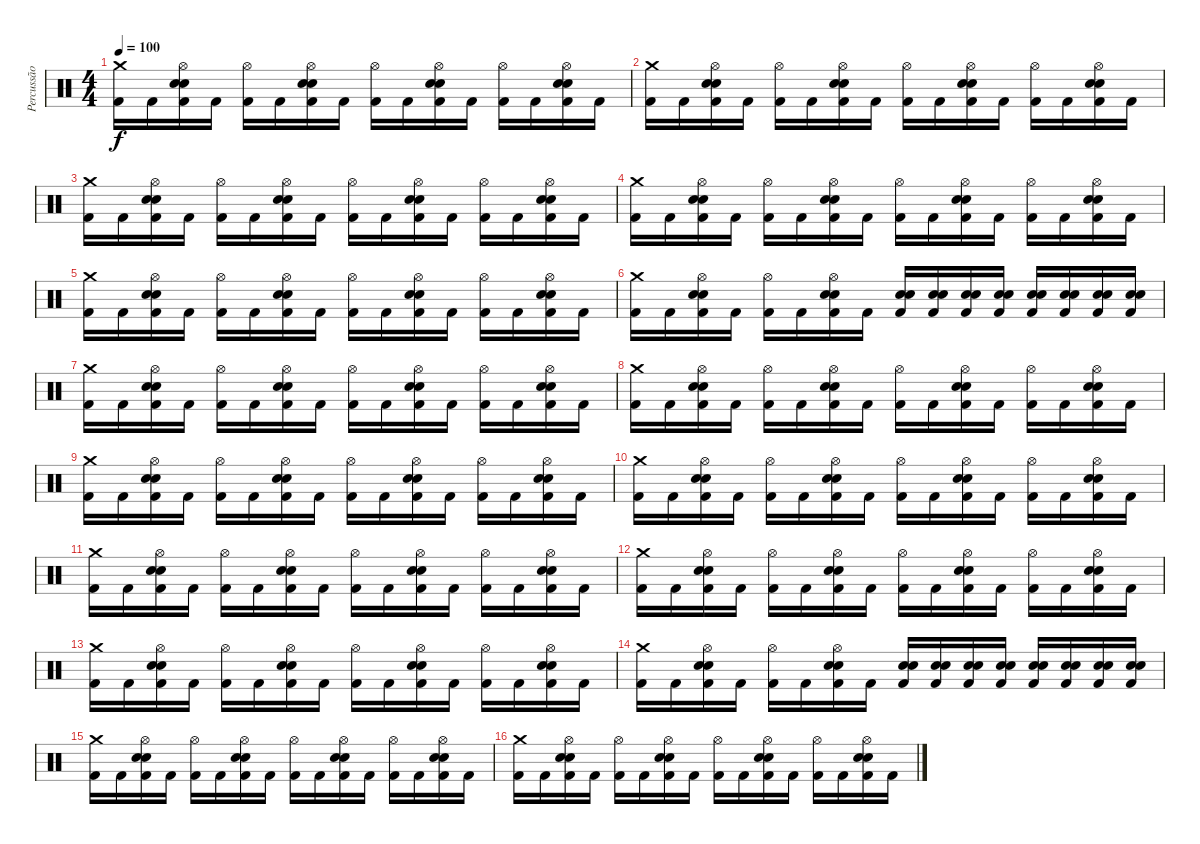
\track ("Percussão" "Percussão") {instrument percussion}
\staff {score}
\articulation defaults
\ts (4 4)
\tempo 100
\clef neutral
\ks c
("Crash medium (hit)" "Kick (hit) 2").16{dy f} "Kick (hit) 2".16 ("Hi-Hat (open)" "Electric Snare (hit)" "Snare (hit) 2" "Kick (hit) 2").16 "Kick (hit) 2".16 ("Hi-Hat (open)" "Kick (hit) 2").16 "Kick (hit) 2".16 ("Hi-Hat (open)" "Electric Snare (hit)" "Snare (hit) 2" "Kick (hit) 2").16 "Kick (hit) 2".16 ("Hi-Hat (open)" "Kick (hit) 2").16 "Kick (hit) 2".16 ("Hi-Hat (open)" "Electric Snare (hit)" "Snare (hit) 2" "Kick (hit) 2").16 "Kick (hit) 2".16 ("Hi-Hat (open)" "Kick (hit) 2").16 "Kick (hit) 2".16 ("Hi-Hat (open)" "Electric Snare (hit)" "Snare (hit) 2" "Kick (hit) 2").16 "Kick (hit) 2".16 |
("Crash medium (hit)" "Kick (hit) 2").16 "Kick (hit) 2".16 ("Hi-Hat (open)" "Electric Snare (hit)" "Snare (hit) 2" "Kick (hit) 2").16 "Kick (hit) 2".16 ("Hi-Hat (open)" "Kick (hit) 2").16 "Kick (hit) 2".16 ("Hi-Hat (open)" "Electric Snare (hit)" "Snare (hit) 2" "Kick (hit) 2").16 "Kick (hit) 2".16 ("Hi-Hat (open)" "Kick (hit) 2").16 "Kick (hit) 2".16 ("Hi-Hat (open)" "Electric Snare (hit)" "Snare (hit) 2" "Kick (hit) 2").16 "Kick (hit) 2".16 ("Hi-Hat (open)" "Kick (hit) 2").16 "Kick (hit) 2".16 ("Hi-Hat (open)" "Electric Snare (hit)" "Snare (hit) 2" "Kick (hit) 2").16 "Kick (hit) 2".16 |
("Crash medium (hit)" "Kick (hit) 2").16 "Kick (hit) 2".16 ("Hi-Hat (open)" "Electric Snare (hit)" "Snare (hit) 2" "Kick (hit) 2").16 "Kick (hit) 2".16 ("Hi-Hat (open)" "Kick (hit) 2").16 "Kick (hit) 2".16 ("Hi-Hat (open)" "Electric Snare (hit)" "Snare (hit) 2" "Kick (hit) 2").16 "Kick (hit) 2".16 ("Hi-Hat (open)" "Kick (hit) 2").16 "Kick (hit) 2".16 ("Hi-Hat (open)" "Electric Snare (hit)" "Snare (hit) 2" "Kick (hit) 2").16 "Kick (hit) 2".16 ("Hi-Hat (open)" "Kick (hit) 2").16 "Kick (hit) 2".16 ("Hi-Hat (open)" "Electric Snare (hit)" "Snare (hit) 2" "Kick (hit) 2").16 "Kick (hit) 2".16 |
("Crash medium (hit)" "Kick (hit) 2").16 "Kick (hit) 2".16 ("Hi-Hat (open)" "Electric Snare (hit)" "Snare (hit) 2" "Kick (hit) 2").16 "Kick (hit) 2".16 ("Hi-Hat (open)" "Kick (hit) 2").16 "Kick (hit) 2".16 ("Hi-Hat (open)" "Electric Snare (hit)" "Snare (hit) 2" "Kick (hit) 2").16 "Kick (hit) 2".16 ("Hi-Hat (open)" "Kick (hit) 2").16 "Kick (hit) 2".16 ("Hi-Hat (open)" "Electric Snare (hit)" "Snare (hit) 2" "Kick (hit) 2").16 "Kick (hit) 2".16 ("Hi-Hat (open)" "Kick (hit) 2").16 "Kick (hit) 2".16 ("Hi-Hat (open)" "Electric Snare (hit)" "Snare (hit) 2" "Kick (hit) 2").16 "Kick (hit) 2".16 |
("Crash medium (hit)" "Kick (hit) 2").16 "Kick (hit) 2".16 ("Hi-Hat (open)" "Electric Snare (hit)" "Snare (hit) 2" "Kick (hit) 2").16 "Kick (hit) 2".16 ("Hi-Hat (open)" "Kick (hit) 2").16 "Kick (hit) 2".16 ("Hi-Hat (open)" "Electric Snare (hit)" "Snare (hit) 2" "Kick (hit) 2").16 "Kick (hit) 2".16 ("Hi-Hat (open)" "Kick (hit) 2").16 "Kick (hit) 2".16 ("Hi-Hat (open)" "Electric Snare (hit)" "Snare (hit) 2" "Kick (hit) 2").16 "Kick (hit) 2".16 ("Hi-Hat (open)" "Kick (hit) 2").16 "Kick (hit) 2".16 ("Hi-Hat (open)" "Electric Snare (hit)" "Snare (hit) 2" "Kick (hit) 2").16 "Kick (hit) 2".16 |
("Crash medium (hit)" "Kick (hit) 2").16 "Kick (hit) 2".16 ("Hi-Hat (open)" "Electric Snare (hit)" "Snare (hit) 2" "Kick (hit) 2").16 "Kick (hit) 2".16 ("Hi-Hat (open)" "Kick (hit) 2").16 "Kick (hit) 2".16 ("Hi-Hat (open)" "Electric Snare (hit)" "Snare (hit) 2" "Kick (hit) 2").16 "Kick (hit) 2".16 ("Electric Snare (hit)" "Snare (hit) 2" "Kick (hit) 2").16 ("Electric Snare (hit)" "Snare (hit) 2" "Kick (hit) 2").16 ("Electric Snare (hit)" "Snare (hit)" "Kick (hit) 2").16 ("Electric Snare (hit)" "Snare (hit)" "Kick (hit) 2").16 ("Electric Snare (hit)" "Snare (hit) 2" "Kick (hit) 2").16 ("Electric Snare (hit)" "Snare (hit) 2" "Kick (hit) 2").16 ("Electric Snare (hit)" "Snare (hit) 2" "Kick (hit) 2").16 ("Electric Snare (hit)" "Snare (hit) 2" "Kick (hit) 2").16 |
("Crash medium (hit)" "Kick (hit) 2").16 "Kick (hit) 2".16 ("Hi-Hat (open)" "Electric Snare (hit)" "Snare (hit) 2" "Kick (hit) 2").16 "Kick (hit) 2".16 ("Hi-Hat (open)" "Kick (hit) 2").16 "Kick (hit) 2".16 ("Hi-Hat (open)" "Electric Snare (hit)" "Snare (hit) 2" "Kick (hit) 2").16 "Kick (hit) 2".16 ("Hi-Hat (open)" "Kick (hit) 2").16 "Kick (hit) 2".16 ("Hi-Hat (open)" "Electric Snare (hit)" "Snare (hit) 2" "Kick (hit) 2").16 "Kick (hit) 2".16 ("Hi-Hat (open)" "Kick (hit) 2").16 "Kick (hit) 2".16 ("Hi-Hat (open)" "Electric Snare (hit)" "Snare (hit) 2" "Kick (hit) 2").16 "Kick (hit) 2".16 |
("Crash medium (hit)" "Kick (hit) 2").16 "Kick (hit) 2".16 ("Hi-Hat (open)" "Electric Snare (hit)" "Snare (hit) 2" "Kick (hit) 2").16 "Kick (hit) 2".16 ("Hi-Hat (open)" "Kick (hit) 2").16 "Kick (hit) 2".16 ("Hi-Hat (open)" "Electric Snare (hit)" "Snare (hit) 2" "Kick (hit) 2").16 "Kick (hit) 2".16 ("Hi-Hat (open)" "Kick (hit) 2").16 "Kick (hit) 2".16 ("Hi-Hat (open)" "Electric Snare (hit)" "Snare (hit) 2" "Kick (hit) 2").16 "Kick (hit) 2".16 ("Hi-Hat (open)" "Kick (hit) 2").16 "Kick (hit) 2".16 ("Hi-Hat (open)" "Electric Snare (hit)" "Snare (hit) 2" "Kick (hit) 2").16 "Kick (hit) 2".16 |
("Crash medium (hit)" "Kick (hit) 2").16 "Kick (hit) 2".16 ("Hi-Hat (open)" "Electric Snare (hit)" "Snare (hit) 2" "Kick (hit) 2").16 "Kick (hit) 2".16 ("Hi-Hat (open)" "Kick (hit) 2").16 "Kick (hit) 2".16 ("Hi-Hat (open)" "Electric Snare (hit)" "Snare (hit) 2" "Kick (hit) 2").16 "Kick (hit) 2".16 ("Hi-Hat (open)" "Kick (hit) 2").16 "Kick (hit) 2".16 ("Hi-Hat (open)" "Electric Snare (hit)" "Snare (hit) 2" "Kick (hit) 2").16 "Kick (hit) 2".16 ("Hi-Hat (open)" "Kick (hit) 2").16 "Kick (hit) 2".16 ("Hi-Hat (open)" "Electric Snare (hit)" "Snare (hit) 2" "Kick (hit) 2").16 "Kick (hit) 2".16 |
("Crash medium (hit)" "Kick (hit) 2").16 "Kick (hit) 2".16 ("Hi-Hat (open)" "Electric Snare (hit)" "Snare (hit) 2" "Kick (hit) 2").16 "Kick (hit) 2".16 ("Hi-Hat (open)" "Kick (hit) 2").16 "Kick (hit) 2".16 ("Hi-Hat (open)" "Electric Snare (hit)" "Snare (hit) 2" "Kick (hit) 2").16 "Kick (hit) 2".16 ("Hi-Hat (open)" "Kick (hit) 2").16 "Kick (hit) 2".16 ("Hi-Hat (open)" "Electric Snare (hit)" "Snare (hit) 2" "Kick (hit) 2").16 "Kick (hit) 2".16 ("Hi-Hat (open)" "Kick (hit) 2").16 "Kick (hit) 2".16 ("Hi-Hat (open)" "Electric Snare (hit)" "Snare (hit) 2" "Kick (hit) 2").16 "Kick (hit) 2".16 |
("Crash medium (hit)" "Kick (hit) 2").16 "Kick (hit) 2".16 ("Hi-Hat (open)" "Electric Snare (hit)" "Snare (hit) 2" "Kick (hit) 2").16 "Kick (hit) 2".16 ("Hi-Hat (open)" "Kick (hit) 2").16 "Kick (hit) 2".16 ("Hi-Hat (open)" "Electric Snare (hit)" "Snare (hit) 2" "Kick (hit) 2").16 "Kick (hit) 2".16 ("Hi-Hat (open)" "Kick (hit) 2").16 "Kick (hit) 2".16 ("Hi-Hat (open)" "Electric Snare (hit)" "Snare (hit) 2" "Kick (hit) 2").16 "Kick (hit) 2".16 ("Hi-Hat (open)" "Kick (hit) 2").16 "Kick (hit) 2".16 ("Hi-Hat (open)" "Electric Snare (hit)" "Snare (hit) 2" "Kick (hit) 2").16 "Kick (hit) 2".16 |
("Crash medium (hit)" "Kick (hit) 2").16 "Kick (hit) 2".16 ("Hi-Hat (open)" "Electric Snare (hit)" "Snare (hit) 2" "Kick (hit) 2").16 "Kick (hit) 2".16 ("Hi-Hat (open)" "Kick (hit) 2").16 "Kick (hit) 2".16 ("Hi-Hat (open)" "Electric Snare (hit)" "Snare (hit) 2" "Kick (hit) 2").16 "Kick (hit) 2".16 ("Hi-Hat (open)" "Kick (hit) 2").16 "Kick (hit) 2".16 ("Hi-Hat (open)" "Electric Snare (hit)" "Snare (hit) 2" "Kick (hit) 2").16 "Kick (hit) 2".16 ("Hi-Hat (open)" "Kick (hit) 2").16 "Kick (hit) 2".16 ("Hi-Hat (open)" "Electric Snare (hit)" "Snare (hit) 2" "Kick (hit) 2").16 "Kick (hit) 2".16 |
("Crash medium (hit)" "Kick (hit) 2").16 "Kick (hit) 2".16 ("Hi-Hat (open)" "Electric Snare (hit)" "Snare (hit) 2" "Kick (hit) 2").16 "Kick (hit) 2".16 ("Hi-Hat (open)" "Kick (hit) 2").16 "Kick (hit) 2".16 ("Hi-Hat (open)" "Electric Snare (hit)" "Snare (hit) 2" "Kick (hit) 2").16 "Kick (hit) 2".16 ("Hi-Hat (open)" "Kick (hit) 2").16 "Kick (hit) 2".16 ("Hi-Hat (open)" "Electric Snare (hit)" "Snare (hit) 2" "Kick (hit) 2").16 "Kick (hit) 2".16 ("Hi-Hat (open)" "Kick (hit) 2").16 "Kick (hit) 2".16 ("Hi-Hat (open)" "Electric Snare (hit)" "Snare (hit) 2" "Kick (hit) 2").16 "Kick (hit) 2".16 |
("Crash medium (hit)" "Kick (hit) 2").16 "Kick (hit) 2".16 ("Hi-Hat (open)" "Electric Snare (hit)" "Snare (hit) 2" "Kick (hit) 2").16 "Kick (hit) 2".16 ("Hi-Hat (open)" "Kick (hit) 2").16 "Kick (hit) 2".16 ("Hi-Hat (open)" "Electric Snare (hit)" "Snare (hit) 2" "Kick (hit) 2").16 "Kick (hit) 2".16 ("Electric Snare (hit)" "Snare (hit) 2" "Kick (hit) 2").16 ("Electric Snare (hit)" "Snare (hit) 2" "Kick (hit) 2").16 ("Electric Snare (hit)" "Snare (hit)" "Kick (hit) 2").16 ("Electric Snare (hit)" "Snare (hit)" "Kick (hit) 2").16 ("Electric Snare (hit)" "Snare (hit) 2" "Kick (hit) 2").16 ("Electric Snare (hit)" "Snare (hit) 2" "Kick (hit) 2").16 ("Electric Snare (hit)" "Snare (hit) 2" "Kick (hit) 2").16 ("Electric Snare (hit)" "Snare (hit) 2" "Kick (hit) 2").16 |
("Crash medium (hit)" "Kick (hit) 2").16 "Kick (hit) 2".16 ("Hi-Hat (open)" "Electric Snare (hit)" "Snare (hit) 2" "Kick (hit) 2").16 "Kick (hit) 2".16 ("Hi-Hat (open)" "Kick (hit) 2").16 "Kick (hit) 2".16 ("Hi-Hat (open)" "Electric Snare (hit)" "Snare (hit) 2" "Kick (hit) 2").16 "Kick (hit) 2".16 ("Hi-Hat (open)" "Kick (hit) 2").16 "Kick (hit) 2".16 ("Hi-Hat (open)" "Electric Snare (hit)" "Snare (hit) 2" "Kick (hit) 2").16 "Kick (hit) 2".16 ("Hi-Hat (open)" "Kick (hit) 2").16 "Kick (hit) 2".16 ("Hi-Hat (open)" "Electric Snare (hit)" "Snare (hit) 2" "Kick (hit) 2").16 "Kick (hit) 2".16 |
("Crash medium (hit)" "Kick (hit) 2").16 "Kick (hit) 2".16 ("Hi-Hat (open)" "Electric Snare (hit)" "Snare (hit) 2" "Kick (hit) 2").16 "Kick (hit) 2".16 ("Hi-Hat (open)" "Kick (hit) 2").16 "Kick (hit) 2".16 ("Hi-Hat (open)" "Electric Snare (hit)" "Snare (hit) 2" "Kick (hit) 2").16 "Kick (hit) 2".16 ("Hi-Hat (open)" "Kick (hit) 2").16 "Kick (hit) 2".16 ("Hi-Hat (open)" "Electric Snare (hit)" "Snare (hit) 2" "Kick (hit) 2").16 "Kick (hit) 2".16 ("Hi-Hat (open)" "Kick (hit) 2").16 "Kick (hit) 2".16 ("Hi-Hat (open)" "Electric Snare (hit)" "Snare (hit) 2" "Kick (hit) 2").16 "Kick (hit) 2".16
